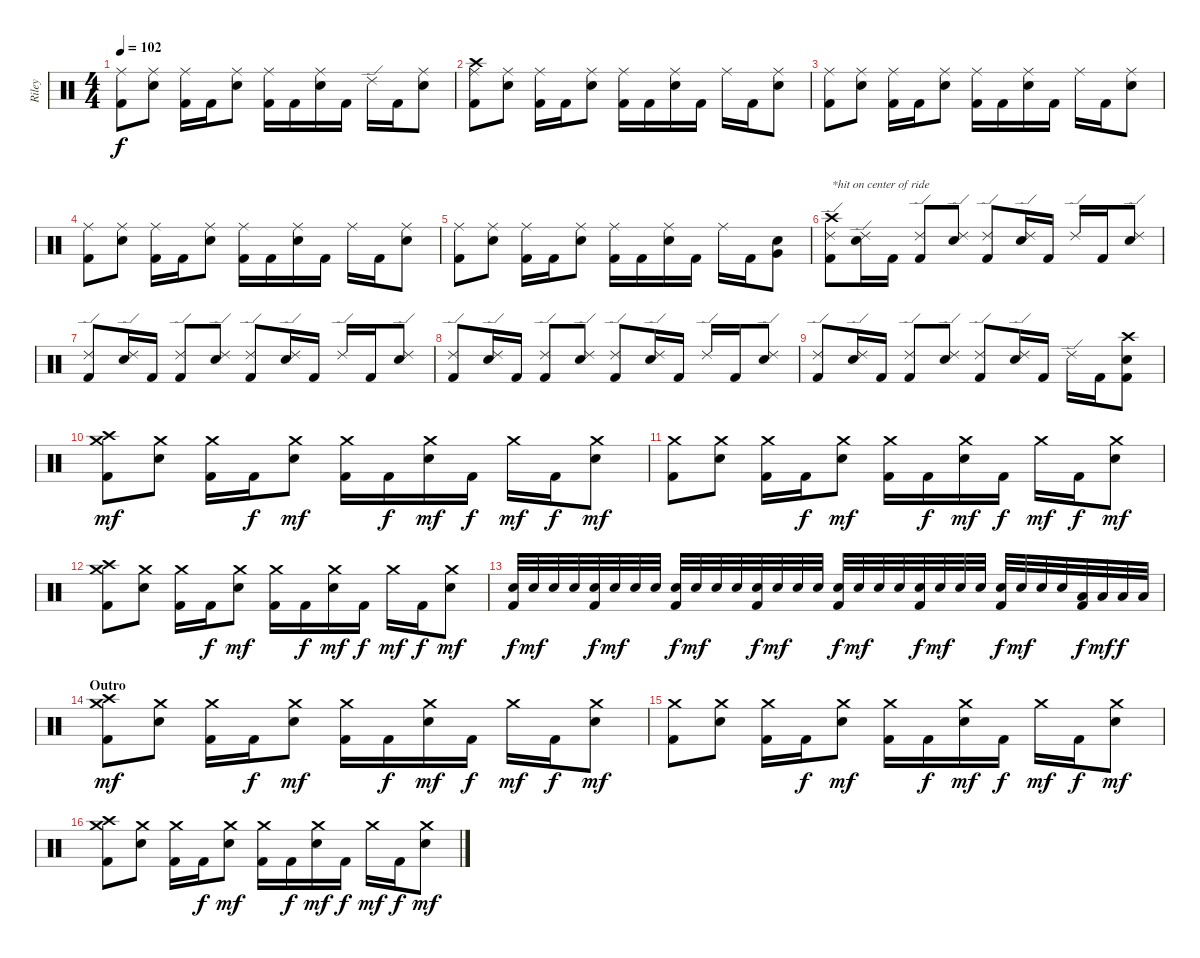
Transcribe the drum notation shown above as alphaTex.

\track ("Riley" "Riley") {instrument percussion}
\staff {score}
\articulation defaults
\ts (4 4)
\tempo 102
\clef neutral
\ks c
("Ride (middle)" "Kick (hit) 2").8{dy f} ("Ride (middle)" "Electric Snare (hit)").8 ("Ride (middle)" "Kick (hit) 2").16 "Kick (hit) 2".16 ("Ride (middle)" "Electric Snare (hit)").8 ("Ride (middle)" "Kick (hit) 2").16 "Kick (hit) 2".16 ("Ride (middle)" "Electric Snare (hit)").16 "Kick (hit) 2".16 "Ride (edge) 2".16 "Kick (hit) 2".16 ("Ride (middle)" "Electric Snare (hit)").8 |
("Crash high (hit)" "Ride (middle)" "Kick (hit) 2").8 ("Ride (middle)" "Electric Snare (hit)").8 ("Ride (middle)" "Kick (hit) 2").16 "Kick (hit) 2".16 ("Ride (middle)" "Electric Snare (hit)").8 ("Ride (middle)" "Kick (hit) 2").16 "Kick (hit) 2".16 ("Ride (middle)" "Electric Snare (hit)").16 "Kick (hit) 2".16 "Ride (middle)".16 "Kick (hit) 2".16 ("Ride (middle)" "Electric Snare (hit)").8 |
("Ride (middle)" "Kick (hit) 2").8 ("Ride (middle)" "Electric Snare (hit)").8 ("Ride (middle)" "Kick (hit) 2").16 "Kick (hit) 2".16 ("Ride (middle)" "Electric Snare (hit)").8 ("Ride (middle)" "Kick (hit) 2").16 "Kick (hit) 2".16 ("Ride (middle)" "Electric Snare (hit)").16 "Kick (hit) 2".16 "Ride (middle)".16 "Kick (hit) 2".16 ("Ride (middle)" "Electric Snare (hit)").8 |
("Ride (middle)" "Kick (hit) 2").8 ("Ride (middle)" "Electric Snare (hit)").8 ("Ride (middle)" "Kick (hit) 2").16 "Kick (hit) 2".16 ("Ride (middle)" "Electric Snare (hit)").8 ("Ride (middle)" "Kick (hit) 2").16 "Kick (hit) 2".16 ("Ride (middle)" "Electric Snare (hit)").16 "Kick (hit) 2".16 "Ride (middle)".16 "Kick (hit) 2".16 ("Ride (middle)" "Electric Snare (hit)").8 |
("Ride (middle)" "Kick (hit) 2").8 ("Ride (middle)" "Electric Snare (hit)").8 ("Ride (middle)" "Kick (hit) 2").16 "Kick (hit) 2".16 ("Ride (middle)" "Electric Snare (hit)").8 ("Ride (middle)" "Kick (hit) 2").16 "Kick (hit) 2".16 ("Ride (middle)" "Electric Snare (hit)").16 "Kick (hit) 2".16 "Ride (middle)".16 "Kick (hit) 2".16 ("Very Low Tom (hit)" "Electric Snare (hit)").8 |
("Crash high (hit)" "Ride (edge) 2" "Kick (hit) 2").8{txt "*hit on center of ride"} ("Ride (edge) 2" "Electric Snare (hit)").16 "Kick (hit) 2".16 ("Ride (edge) 2" "Kick (hit) 2").8 ("Ride (edge) 2" "Electric Snare (hit)").8 ("Ride (edge) 2" "Kick (hit) 2").8 ("Ride (edge) 2" "Electric Snare (hit)").16 "Kick (hit) 2".16 "Ride (edge) 2".16 "Kick (hit) 2".16 ("Ride (edge) 2" "Electric Snare (hit)").8 |
("Ride (edge) 2" "Kick (hit) 2").8 ("Ride (edge) 2" "Electric Snare (hit)").16 "Kick (hit) 2".16 ("Ride (edge) 2" "Kick (hit) 2").8 ("Ride (edge) 2" "Electric Snare (hit)").8 ("Ride (edge) 2" "Kick (hit) 2").8 ("Ride (edge) 2" "Electric Snare (hit)").16 "Kick (hit) 2".16 "Ride (edge) 2".16 "Kick (hit) 2".16 ("Ride (edge) 2" "Electric Snare (hit)").8 |
("Ride (edge) 2" "Kick (hit) 2").8 ("Ride (edge) 2" "Electric Snare (hit)").16 "Kick (hit) 2".16 ("Ride (edge) 2" "Kick (hit) 2").8 ("Ride (edge) 2" "Electric Snare (hit)").8 ("Ride (edge) 2" "Kick (hit) 2").8 ("Ride (edge) 2" "Electric Snare (hit)").16 "Kick (hit) 2".16 "Ride (edge) 2".16 "Kick (hit) 2".16 ("Ride (edge) 2" "Electric Snare (hit)").8 |
("Ride (edge) 2" "Kick (hit) 2").8 ("Ride (edge) 2" "Electric Snare (hit)").16 "Kick (hit) 2".16 ("Ride (edge) 2" "Kick (hit) 2").8 ("Ride (edge) 2" "Electric Snare (hit)").8 ("Ride (edge) 2" "Kick (hit) 2").8 ("Ride (edge) 2" "Electric Snare (hit)").16 "Kick (hit) 2".16 "Ride (edge) 2".16 "Kick (hit) 2".16 ("Crash high (hit)" "Electric Snare (hit)" "Kick (hit) 2").8 |
("Crash medium (hit)" "Crash high (hit)" "Kick (hit) 2").8{dy mf} ("Crash medium (hit)" "Electric Snare (hit)").8 ("Crash medium (hit)" "Kick (hit) 2").16 "Kick (hit) 2".16{dy f} ("Crash medium (hit)" "Electric Snare (hit)").8{dy mf} ("Crash medium (hit)" "Kick (hit) 2").16 "Kick (hit) 2".16{dy f} ("Crash medium (hit)" "Electric Snare (hit)").16{dy mf} "Kick (hit) 2".16{dy f} "Crash medium (hit)".16{dy mf} "Kick (hit) 2".16{dy f} ("Crash medium (hit)" "Electric Snare (hit)").8{dy mf} |
("Crash medium (hit)" "Kick (hit) 2").8 ("Crash medium (hit)" "Electric Snare (hit)").8 ("Crash medium (hit)" "Kick (hit) 2").16 "Kick (hit) 2".16{dy f} ("Crash medium (hit)" "Electric Snare (hit)").8{dy mf} ("Crash medium (hit)" "Kick (hit) 2").16 "Kick (hit) 2".16{dy f} ("Crash medium (hit)" "Electric Snare (hit)").16{dy mf} "Kick (hit) 2".16{dy f} "Crash medium (hit)".16{dy mf} "Kick (hit) 2".16{dy f} ("Crash medium (hit)" "Electric Snare (hit)").8{dy mf} |
("Crash medium (hit)" "Crash high (hit)" "Kick (hit) 2").8 ("Crash medium (hit)" "Electric Snare (hit)").8 ("Crash medium (hit)" "Kick (hit) 2").16 "Kick (hit) 2".16{dy f} ("Crash medium (hit)" "Electric Snare (hit)").8{dy mf} ("Crash medium (hit)" "Kick (hit) 2").16 "Kick (hit) 2".16{dy f} ("Crash medium (hit)" "Electric Snare (hit)").16{dy mf} "Kick (hit) 2".16{dy f} "Crash medium (hit)".16{dy mf} "Kick (hit) 2".16{dy f} ("Crash medium (hit)" "Electric Snare (hit)").8{dy mf} |
("Electric Snare (hit)" "Kick (hit) 2").32{dy f} "Electric Snare (hit)".32{dy mf} "Electric Snare (hit)".32 "Electric Snare (hit)".32 ("Electric Snare (hit)" "Kick (hit) 2").32{dy f} "Electric Snare (hit)".32{dy mf} "Electric Snare (hit)".32 "Electric Snare (hit)".32 ("Electric Snare (hit)" "Kick (hit) 2").32{dy f} "Electric Snare (hit)".32{dy mf} "Electric Snare (hit)".32 "Electric Snare (hit)".32 ("Electric Snare (hit)" "Kick (hit) 2").32{dy f} "Electric Snare (hit)".32{dy mf} "Electric Snare (hit)".32 "Electric Snare (hit)".32 ("Electric Snare (hit)" "Kick (hit) 2").32{dy f} "Electric Snare (hit)".32{dy mf} "Electric Snare (hit)".32 "Electric Snare (hit)".32 ("Electric Snare (hit)" "Kick (hit) 2").32{dy f} "Electric Snare (hit)".32{dy mf} "Electric Snare (hit)".32 "Electric Snare (hit)".32 ("Electric Snare (hit)" "Kick (hit) 2").32{dy f} "Electric Snare (hit)".32{dy mf} "Electric Snare (hit)".32 "Electric Snare (hit)".32 ("Low Tom (hit)" "Kick (hit) 2").32{dy f} "Low Tom (hit)".32{dy mf} "Low Tom (hit)".32{dy f} "Low Tom (hit)".32 |
\section ("" "Outro")
("Crash medium (hit)" "Crash high (hit)" "Kick (hit) 2").8{dy mf} ("Crash medium (hit)" "Electric Snare (hit)").8 ("Crash medium (hit)" "Kick (hit) 2").16 "Kick (hit) 2".16{dy f} ("Crash medium (hit)" "Electric Snare (hit)").8{dy mf} ("Crash medium (hit)" "Kick (hit) 2").16 "Kick (hit) 2".16{dy f} ("Crash medium (hit)" "Electric Snare (hit)").16{dy mf} "Kick (hit) 2".16{dy f} "Crash medium (hit)".16{dy mf} "Kick (hit) 2".16{dy f} ("Crash medium (hit)" "Electric Snare (hit)").8{dy mf} |
("Crash medium (hit)" "Kick (hit) 2").8 ("Crash medium (hit)" "Electric Snare (hit)").8 ("Crash medium (hit)" "Kick (hit) 2").16 "Kick (hit) 2".16{dy f} ("Crash medium (hit)" "Electric Snare (hit)").8{dy mf} ("Crash medium (hit)" "Kick (hit) 2").16 "Kick (hit) 2".16{dy f} ("Crash medium (hit)" "Electric Snare (hit)").16{dy mf} "Kick (hit) 2".16{dy f} "Crash medium (hit)".16{dy mf} "Kick (hit) 2".16{dy f} ("Crash medium (hit)" "Electric Snare (hit)").8{dy mf} |
("Crash medium (hit)" "Crash high (hit)" "Kick (hit) 2").8 ("Crash medium (hit)" "Electric Snare (hit)").8 ("Crash medium (hit)" "Kick (hit) 2").16 "Kick (hit) 2".16{dy f} ("Crash medium (hit)" "Electric Snare (hit)").8{dy mf} ("Crash medium (hit)" "Kick (hit) 2").16 "Kick (hit) 2".16{dy f} ("Crash medium (hit)" "Electric Snare (hit)").16{dy mf} "Kick (hit) 2".16{dy f} "Crash medium (hit)".16{dy mf} "Kick (hit) 2".16{dy f} ("Crash medium (hit)" "Electric Snare (hit)").8{dy mf}
